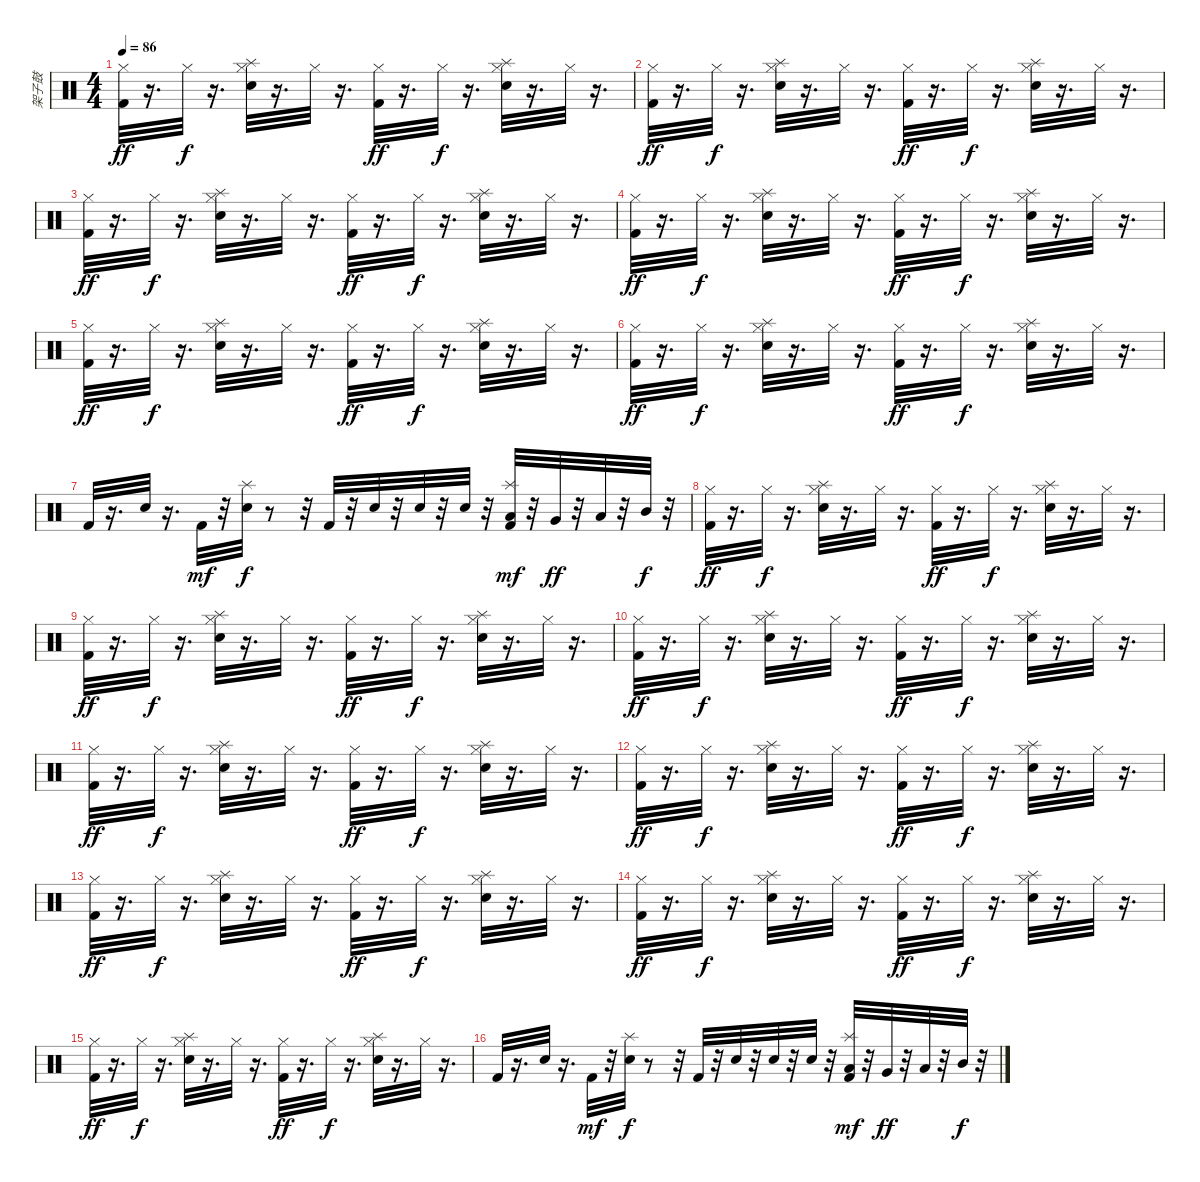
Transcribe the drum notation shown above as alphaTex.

\track ("架子鼓" "架子鼓") {instrument percussion}
\staff {score}
\articulation defaults
\ts (4 4)
\tempo 86
\clef neutral
\ks c
("Hi-Hat (closed)" "Kick (hit) 2").32{dy ff} r.16{d} "Hi-Hat (closed)".32{dy f} r.16{d} ("Splash (hit)" "Hi-Hat (closed)" "Electric Snare (hit)").32 r.16{d} "Hi-Hat (closed)".32 r.16{d} ("Hi-Hat (closed)" "Kick (hit) 2").32{dy ff} r.16{d} "Hi-Hat (closed)".32{dy f} r.16{d} ("Splash (hit)" "Hi-Hat (closed)" "Electric Snare (hit)").32 r.16{d} "Hi-Hat (closed)".32 r.16{d} |
("Hi-Hat (closed)" "Kick (hit) 2").32{dy ff} r.16{d} "Hi-Hat (closed)".32{dy f} r.16{d} ("Splash (hit)" "Hi-Hat (closed)" "Electric Snare (hit)").32 r.16{d} "Hi-Hat (closed)".32 r.16{d} ("Hi-Hat (closed)" "Kick (hit) 2").32{dy ff} r.16{d} "Hi-Hat (closed)".32{dy f} r.16{d} ("Splash (hit)" "Hi-Hat (closed)" "Electric Snare (hit)").32 r.16{d} "Hi-Hat (closed)".32 r.16{d} |
("Hi-Hat (closed)" "Kick (hit) 2").32{dy ff} r.16{d} "Hi-Hat (closed)".32{dy f} r.16{d} ("Splash (hit)" "Hi-Hat (closed)" "Electric Snare (hit)").32 r.16{d} "Hi-Hat (closed)".32 r.16{d} ("Hi-Hat (closed)" "Kick (hit) 2").32{dy ff} r.16{d} "Hi-Hat (closed)".32{dy f} r.16{d} ("Splash (hit)" "Hi-Hat (closed)" "Electric Snare (hit)").32 r.16{d} "Hi-Hat (closed)".32 r.16{d} |
("Hi-Hat (closed)" "Kick (hit) 2").32{dy ff} r.16{d} "Hi-Hat (closed)".32{dy f} r.16{d} ("Splash (hit)" "Hi-Hat (closed)" "Electric Snare (hit)").32 r.16{d} "Hi-Hat (closed)".32 r.16{d} ("Hi-Hat (closed)" "Kick (hit) 2").32{dy ff} r.16{d} "Hi-Hat (closed)".32{dy f} r.16{d} ("Splash (hit)" "Hi-Hat (closed)" "Electric Snare (hit)").32 r.16{d} "Hi-Hat (closed)".32 r.16{d} |
("Hi-Hat (closed)" "Kick (hit) 2").32{dy ff} r.16{d} "Hi-Hat (closed)".32{dy f} r.16{d} ("Splash (hit)" "Hi-Hat (closed)" "Electric Snare (hit)").32 r.16{d} "Hi-Hat (closed)".32 r.16{d} ("Hi-Hat (closed)" "Kick (hit) 2").32{dy ff} r.16{d} "Hi-Hat (closed)".32{dy f} r.16{d} ("Splash (hit)" "Hi-Hat (closed)" "Electric Snare (hit)").32 r.16{d} "Hi-Hat (closed)".32 r.16{d} |
("Hi-Hat (closed)" "Kick (hit) 2").32{dy ff} r.16{d} "Hi-Hat (closed)".32{dy f} r.16{d} ("Splash (hit)" "Hi-Hat (closed)" "Electric Snare (hit)").32 r.16{d} "Hi-Hat (closed)".32 r.16{d} ("Hi-Hat (closed)" "Kick (hit) 2").32{dy ff} r.16{d} "Hi-Hat (closed)".32{dy f} r.16{d} ("Splash (hit)" "Hi-Hat (closed)" "Electric Snare (hit)").32 r.16{d} "Hi-Hat (closed)".32 r.16{d} |
"Kick (hit) 2".32 r.16{d} "Electric Snare (hit)".32 r.16{d} "Kick (hit) 2".32{dy mf} r.32 ("Splash (hit)" "Electric Snare (hit)").32{dy f} r.8 r.32 "Kick (hit) 2".32 r.32 "Electric Snare (hit)".32 r.32 "Electric Snare (hit)".32 r.32 "Electric Snare (hit)".32 r.32 ("Splash (hit)" "Low Floor Tom (hit)" "Kick (hit) 2").32{dy mf} r.32 "Very Low Tom (hit)".32{dy ff} r.32 "Low Tom (hit)".32 r.32 "Mid Tom (hit)".32{dy f} r.32 |
("Hi-Hat (closed)" "Kick (hit) 2").32{dy ff} r.16{d} "Hi-Hat (closed)".32{dy f} r.16{d} ("Splash (hit)" "Hi-Hat (closed)" "Electric Snare (hit)").32 r.16{d} "Hi-Hat (closed)".32 r.16{d} ("Hi-Hat (closed)" "Kick (hit) 2").32{dy ff} r.16{d} "Hi-Hat (closed)".32{dy f} r.16{d} ("Splash (hit)" "Hi-Hat (closed)" "Electric Snare (hit)").32 r.16{d} "Hi-Hat (closed)".32 r.16{d} |
("Hi-Hat (closed)" "Kick (hit) 2").32{dy ff} r.16{d} "Hi-Hat (closed)".32{dy f} r.16{d} ("Splash (hit)" "Hi-Hat (closed)" "Electric Snare (hit)").32 r.16{d} "Hi-Hat (closed)".32 r.16{d} ("Hi-Hat (closed)" "Kick (hit) 2").32{dy ff} r.16{d} "Hi-Hat (closed)".32{dy f} r.16{d} ("Splash (hit)" "Hi-Hat (closed)" "Electric Snare (hit)").32 r.16{d} "Hi-Hat (closed)".32 r.16{d} |
("Hi-Hat (closed)" "Kick (hit) 2").32{dy ff} r.16{d} "Hi-Hat (closed)".32{dy f} r.16{d} ("Splash (hit)" "Hi-Hat (closed)" "Electric Snare (hit)").32 r.16{d} "Hi-Hat (closed)".32 r.16{d} ("Hi-Hat (closed)" "Kick (hit) 2").32{dy ff} r.16{d} "Hi-Hat (closed)".32{dy f} r.16{d} ("Splash (hit)" "Hi-Hat (closed)" "Electric Snare (hit)").32 r.16{d} "Hi-Hat (closed)".32 r.16{d} |
("Hi-Hat (closed)" "Kick (hit) 2").32{dy ff} r.16{d} "Hi-Hat (closed)".32{dy f} r.16{d} ("Splash (hit)" "Hi-Hat (closed)" "Electric Snare (hit)").32 r.16{d} "Hi-Hat (closed)".32 r.16{d} ("Hi-Hat (closed)" "Kick (hit) 2").32{dy ff} r.16{d} "Hi-Hat (closed)".32{dy f} r.16{d} ("Splash (hit)" "Hi-Hat (closed)" "Electric Snare (hit)").32 r.16{d} "Hi-Hat (closed)".32 r.16{d} |
("Hi-Hat (closed)" "Kick (hit) 2").32{dy ff} r.16{d} "Hi-Hat (closed)".32{dy f} r.16{d} ("Splash (hit)" "Hi-Hat (closed)" "Electric Snare (hit)").32 r.16{d} "Hi-Hat (closed)".32 r.16{d} ("Hi-Hat (closed)" "Kick (hit) 2").32{dy ff} r.16{d} "Hi-Hat (closed)".32{dy f} r.16{d} ("Splash (hit)" "Hi-Hat (closed)" "Electric Snare (hit)").32 r.16{d} "Hi-Hat (closed)".32 r.16{d} |
("Hi-Hat (closed)" "Kick (hit) 2").32{dy ff} r.16{d} "Hi-Hat (closed)".32{dy f} r.16{d} ("Splash (hit)" "Hi-Hat (closed)" "Electric Snare (hit)").32 r.16{d} "Hi-Hat (closed)".32 r.16{d} ("Hi-Hat (closed)" "Kick (hit) 2").32{dy ff} r.16{d} "Hi-Hat (closed)".32{dy f} r.16{d} ("Splash (hit)" "Hi-Hat (closed)" "Electric Snare (hit)").32 r.16{d} "Hi-Hat (closed)".32 r.16{d} |
("Hi-Hat (closed)" "Kick (hit) 2").32{dy ff} r.16{d} "Hi-Hat (closed)".32{dy f} r.16{d} ("Splash (hit)" "Hi-Hat (closed)" "Electric Snare (hit)").32 r.16{d} "Hi-Hat (closed)".32 r.16{d} ("Hi-Hat (closed)" "Kick (hit) 2").32{dy ff} r.16{d} "Hi-Hat (closed)".32{dy f} r.16{d} ("Splash (hit)" "Hi-Hat (closed)" "Electric Snare (hit)").32 r.16{d} "Hi-Hat (closed)".32 r.16{d} |
("Hi-Hat (closed)" "Kick (hit) 2").32{dy ff} r.16{d} "Hi-Hat (closed)".32{dy f} r.16{d} ("Splash (hit)" "Hi-Hat (closed)" "Electric Snare (hit)").32 r.16{d} "Hi-Hat (closed)".32 r.16{d} ("Hi-Hat (closed)" "Kick (hit) 2").32{dy ff} r.16{d} "Hi-Hat (closed)".32{dy f} r.16{d} ("Splash (hit)" "Hi-Hat (closed)" "Electric Snare (hit)").32 r.16{d} "Hi-Hat (closed)".32 r.16{d} |
"Kick (hit) 2".32 r.16{d} "Electric Snare (hit)".32 r.16{d} "Kick (hit) 2".32{dy mf} r.32 ("Splash (hit)" "Electric Snare (hit)").32{dy f} r.8 r.32 "Kick (hit) 2".32 r.32 "Electric Snare (hit)".32 r.32 "Electric Snare (hit)".32 r.32 "Electric Snare (hit)".32 r.32 ("Splash (hit)" "Low Floor Tom (hit)" "Kick (hit) 2").32{dy mf} r.32 "Very Low Tom (hit)".32{dy ff} r.32 "Low Tom (hit)".32 r.32 "Mid Tom (hit)".32{dy f} r.32
